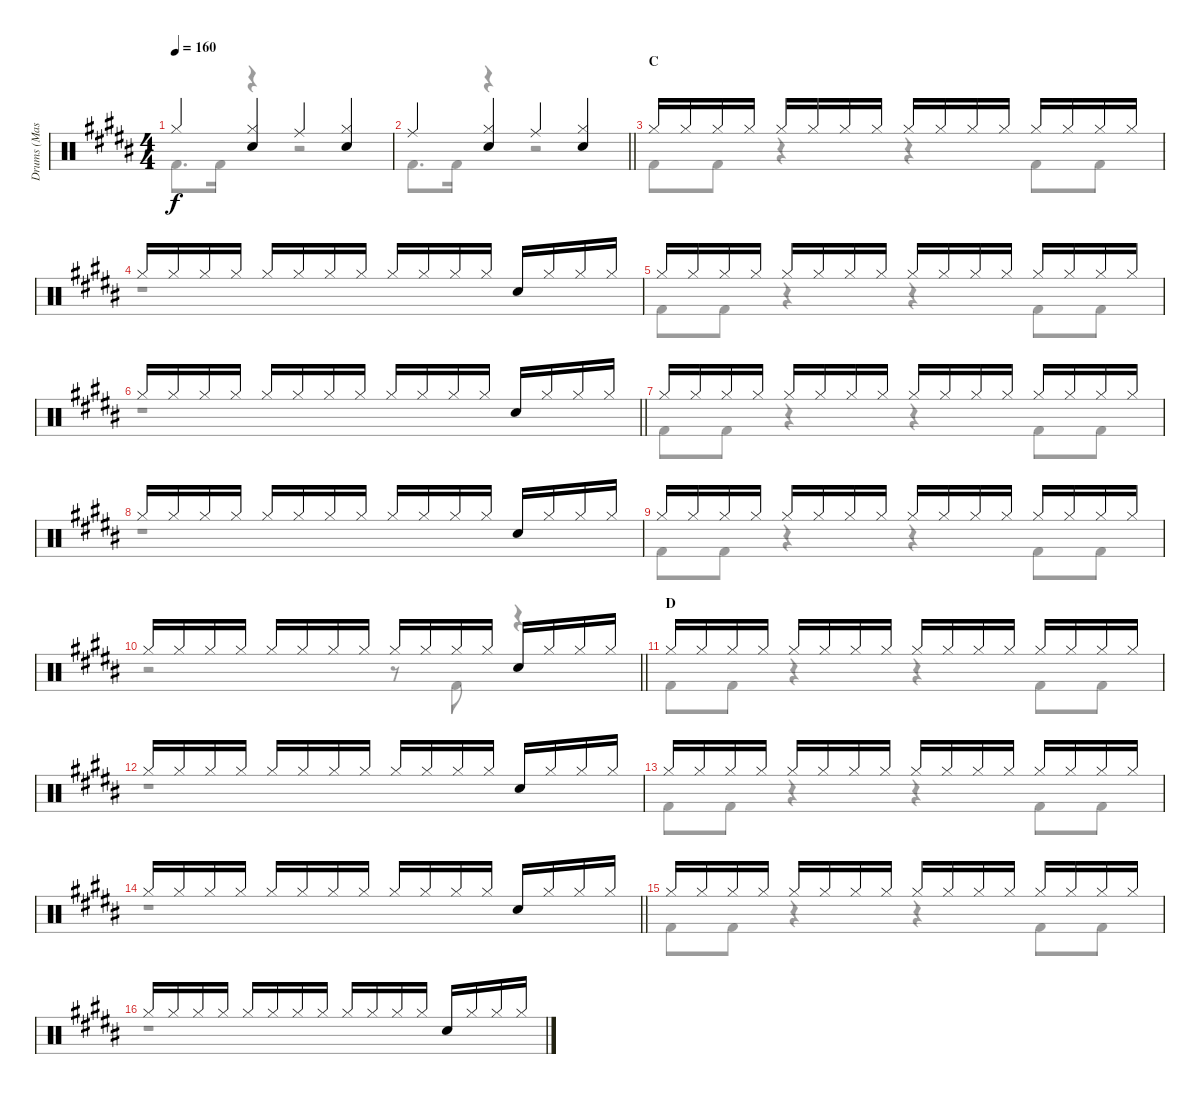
\track ("Drums (Masafumi Minato)" "Drums (Mas") {instrument percussion}
\staff {score}
\articulation defaults
\voice
\ts (4 4)
\tempo 160
\clef neutral
\ks g#minor "Hi-Hat (closed)".4{dy f}
("Hi-Hat (closed)" "Snare (hit) 2").4 "Ride (middle)".4 ("Hi-Hat (closed)" "Snare (hit) 2").4 |
\barLineRight lightlight "Ride (middle)".4
("Hi-Hat (closed)" "Snare (hit) 2").4 "Ride (middle)".4 ("Hi-Hat (closed)" "Snare (hit) 2").4 |
\section ("" "C")
"Hi-Hat (closed)".16 "Hi-Hat (closed)".16 "Hi-Hat (closed)".16 "Hi-Hat (closed)".16 "Hi-Hat (closed)".16 "Hi-Hat (closed)".16 "Hi-Hat (closed)".16 "Hi-Hat (closed)".16 "Hi-Hat (closed)".16 "Hi-Hat (closed)".16 "Hi-Hat (closed)".16 "Hi-Hat (closed)".16 "Hi-Hat (closed)".16 "Hi-Hat (closed)".16 "Hi-Hat (closed)".16 "Hi-Hat (closed)".16 |
"Hi-Hat (closed)".16 "Hi-Hat (closed)".16 "Hi-Hat (closed)".16 "Hi-Hat (closed)".16 "Hi-Hat (closed)".16 "Hi-Hat (closed)".16 "Hi-Hat (closed)".16 "Hi-Hat (closed)".16 "Hi-Hat (closed)".16 "Hi-Hat (closed)".16 "Hi-Hat (closed)".16 "Hi-Hat (closed)".16 "Snare (hit) 2".16 "Hi-Hat (closed)".16 "Hi-Hat (closed)".16 "Hi-Hat (closed)".16 |
"Hi-Hat (closed)".16 "Hi-Hat (closed)".16 "Hi-Hat (closed)".16 "Hi-Hat (closed)".16 "Hi-Hat (closed)".16 "Hi-Hat (closed)".16 "Hi-Hat (closed)".16 "Hi-Hat (closed)".16 "Hi-Hat (closed)".16 "Hi-Hat (closed)".16 "Hi-Hat (closed)".16 "Hi-Hat (closed)".16 "Hi-Hat (closed)".16 "Hi-Hat (closed)".16 "Hi-Hat (closed)".16 "Hi-Hat (closed)".16 |
\barLineRight lightlight "Hi-Hat (closed)".16 "Hi-Hat (closed)".16 "Hi-Hat (closed)".16 "Hi-Hat (closed)".16 "Hi-Hat (closed)".16 "Hi-Hat (closed)".16 "Hi-Hat (closed)".16 "Hi-Hat (closed)".16 "Hi-Hat (closed)".16 "Hi-Hat (closed)".16 "Hi-Hat (closed)".16 "Hi-Hat (closed)".16 "Snare (hit) 2".16 "Hi-Hat (closed)".16 "Hi-Hat (closed)".16 "Hi-Hat (closed)".16
|
"Hi-Hat (closed)".16 "Hi-Hat (closed)".16 "Hi-Hat (closed)".16 "Hi-Hat (closed)".16 "Hi-Hat (closed)".16 "Hi-Hat (closed)".16 "Hi-Hat (closed)".16 "Hi-Hat (closed)".16 "Hi-Hat (closed)".16 "Hi-Hat (closed)".16 "Hi-Hat (closed)".16 "Hi-Hat (closed)".16 "Hi-Hat (closed)".16 "Hi-Hat (closed)".16 "Hi-Hat (closed)".16 "Hi-Hat (closed)".16 |
"Hi-Hat (closed)".16 "Hi-Hat (closed)".16 "Hi-Hat (closed)".16 "Hi-Hat (closed)".16 "Hi-Hat (closed)".16 "Hi-Hat (closed)".16 "Hi-Hat (closed)".16 "Hi-Hat (closed)".16 "Hi-Hat (closed)".16 "Hi-Hat (closed)".16 "Hi-Hat (closed)".16 "Hi-Hat (closed)".16 "Snare (hit) 2".16 "Hi-Hat (closed)".16 "Hi-Hat (closed)".16 "Hi-Hat (closed)".16 |
"Hi-Hat (closed)".16 "Hi-Hat (closed)".16 "Hi-Hat (closed)".16 "Hi-Hat (closed)".16 "Hi-Hat (closed)".16 "Hi-Hat (closed)".16 "Hi-Hat (closed)".16 "Hi-Hat (closed)".16 "Hi-Hat (closed)".16 "Hi-Hat (closed)".16 "Hi-Hat (closed)".16 "Hi-Hat (closed)".16 "Hi-Hat (closed)".16 "Hi-Hat (closed)".16 "Hi-Hat (closed)".16 "Hi-Hat (closed)".16 |
\barLineRight lightlight "Hi-Hat (closed)".16 "Hi-Hat (closed)".16 "Hi-Hat (closed)".16 "Hi-Hat (closed)".16 "Hi-Hat (closed)".16 "Hi-Hat (closed)".16 "Hi-Hat (closed)".16 "Hi-Hat (closed)".16 "Hi-Hat (closed)".16 "Hi-Hat (closed)".16 "Hi-Hat (closed)".16 "Hi-Hat (closed)".16 "Snare (hit) 2".16 "Hi-Hat (closed)".16 "Hi-Hat (closed)".16 "Hi-Hat (closed)".16
|
\section ("" "D")
"Hi-Hat (closed)".16 "Hi-Hat (closed)".16 "Hi-Hat (closed)".16 "Hi-Hat (closed)".16 "Hi-Hat (closed)".16 "Hi-Hat (closed)".16 "Hi-Hat (closed)".16 "Hi-Hat (closed)".16 "Hi-Hat (closed)".16 "Hi-Hat (closed)".16 "Hi-Hat (closed)".16 "Hi-Hat (closed)".16 "Hi-Hat (closed)".16 "Hi-Hat (closed)".16 "Hi-Hat (closed)".16 "Hi-Hat (closed)".16 |
"Hi-Hat (closed)".16 "Hi-Hat (closed)".16 "Hi-Hat (closed)".16 "Hi-Hat (closed)".16 "Hi-Hat (closed)".16 "Hi-Hat (closed)".16 "Hi-Hat (closed)".16 "Hi-Hat (closed)".16 "Hi-Hat (closed)".16 "Hi-Hat (closed)".16 "Hi-Hat (closed)".16 "Hi-Hat (closed)".16 "Snare (hit) 2".16 "Hi-Hat (closed)".16 "Hi-Hat (closed)".16 "Hi-Hat (closed)".16 |
"Hi-Hat (closed)".16 "Hi-Hat (closed)".16 "Hi-Hat (closed)".16 "Hi-Hat (closed)".16 "Hi-Hat (closed)".16 "Hi-Hat (closed)".16 "Hi-Hat (closed)".16 "Hi-Hat (closed)".16 "Hi-Hat (closed)".16 "Hi-Hat (closed)".16 "Hi-Hat (closed)".16 "Hi-Hat (closed)".16 "Hi-Hat (closed)".16 "Hi-Hat (closed)".16 "Hi-Hat (closed)".16 "Hi-Hat (closed)".16 |
\barLineRight lightlight "Hi-Hat (closed)".16 "Hi-Hat (closed)".16 "Hi-Hat (closed)".16 "Hi-Hat (closed)".16 "Hi-Hat (closed)".16 "Hi-Hat (closed)".16 "Hi-Hat (closed)".16 "Hi-Hat (closed)".16 "Hi-Hat (closed)".16 "Hi-Hat (closed)".16 "Hi-Hat (closed)".16 "Hi-Hat (closed)".16 "Snare (hit) 2".16 "Hi-Hat (closed)".16 "Hi-Hat (closed)".16 "Hi-Hat (closed)".16
|
"Hi-Hat (closed)".16 "Hi-Hat (closed)".16 "Hi-Hat (closed)".16 "Hi-Hat (closed)".16 "Hi-Hat (closed)".16 "Hi-Hat (closed)".16 "Hi-Hat (closed)".16 "Hi-Hat (closed)".16 "Hi-Hat (closed)".16 "Hi-Hat (closed)".16 "Hi-Hat (closed)".16 "Hi-Hat (closed)".16 "Hi-Hat (closed)".16 "Hi-Hat (closed)".16 "Hi-Hat (closed)".16 "Hi-Hat (closed)".16 |
"Hi-Hat (closed)".16 "Hi-Hat (closed)".16 "Hi-Hat (closed)".16 "Hi-Hat (closed)".16 "Hi-Hat (closed)".16 "Hi-Hat (closed)".16 "Hi-Hat (closed)".16 "Hi-Hat (closed)".16 "Hi-Hat (closed)".16 "Hi-Hat (closed)".16 "Hi-Hat (closed)".16 "Hi-Hat (closed)".16 "Snare (hit) 2".16 "Hi-Hat (closed)".16 "Hi-Hat (closed)".16 "Hi-Hat (closed)".16
\voice
\clef neutral
\ottava regular
\simile none
\ks g#minor "Kick (hit) 2".8{d dy f} "Kick (hit) 2".16
r.4 r.2 |
\barLineRight lightlight "Kick (hit) 2".8{d} "Kick (hit) 2".16
r.4 r.2 |
"Kick (hit) 2".8 "Kick (hit) 2".8 r.4 r.4 "Kick (hit) 2".8 "Kick (hit) 2".8 |
r.1 |
"Kick (hit) 2".8 "Kick (hit) 2".8 r.4 r.4 "Kick (hit) 2".8 "Kick (hit) 2".8 |
\barLineRight lightlight
r.1 |
"Kick (hit) 2".8 "Kick (hit) 2".8 r.4 r.4 "Kick (hit) 2".8 "Kick (hit) 2".8 |
r.1 |
"Kick (hit) 2".8 "Kick (hit) 2".8 r.4 r.4 "Kick (hit) 2".8 "Kick (hit) 2".8 |
\barLineRight lightlight
r.2 r.8 "Kick (hit) 2".8 r.4 |
"Kick (hit) 2".8 "Kick (hit) 2".8 r.4 r.4 "Kick (hit) 2".8 "Kick (hit) 2".8 |
r.1 |
"Kick (hit) 2".8 "Kick (hit) 2".8 r.4 r.4 "Kick (hit) 2".8 "Kick (hit) 2".8 |
\barLineRight lightlight
r.1 |
"Kick (hit) 2".8 "Kick (hit) 2".8 r.4 r.4 "Kick (hit) 2".8 "Kick (hit) 2".8 |
r.1
